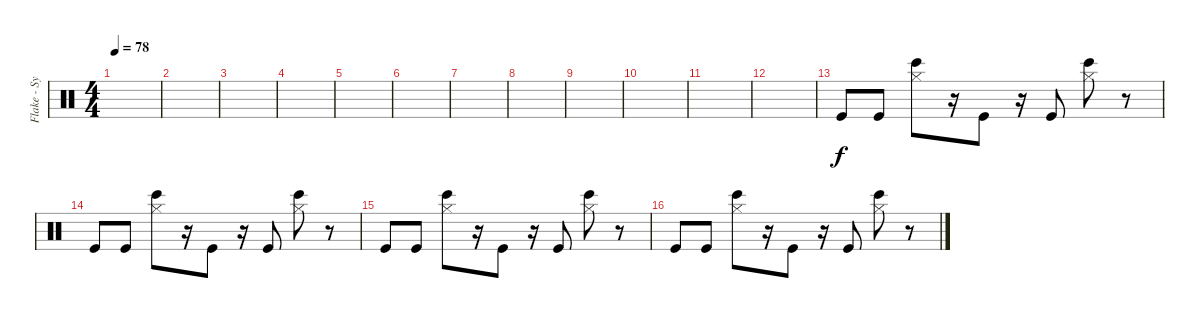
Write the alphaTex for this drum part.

\track ("Flake - Synth Drums" "Flake - Sy") {instrument percussion}
\staff {score}
\articulation defaults
\ts (4 4)
\tempo 78
\clef neutral
\ks c
|
|
|
|
|
|
|
|
|
|
|
|
"Kick (hit)".8 "Kick (hit)".8 ("Bongo High (hit)" "Hi-Hat (closed)").8 r.16 "Kick (hit)".8 r.16 "Kick (hit)".8 ("Bongo High (hit)" "Hi-Hat (closed)").8 r.8 |
"Kick (hit)".8 "Kick (hit)".8 ("Bongo High (hit)" "Hi-Hat (closed)").8 r.16 "Kick (hit)".8 r.16 "Kick (hit)".8 ("Bongo High (hit)" "Hi-Hat (closed)").8 r.8 |
"Kick (hit)".8 "Kick (hit)".8 ("Bongo High (hit)" "Hi-Hat (closed)").8 r.16 "Kick (hit)".8 r.16 "Kick (hit)".8 ("Bongo High (hit)" "Hi-Hat (closed)").8 r.8 |
"Kick (hit)".8 "Kick (hit)".8 ("Bongo High (hit)" "Hi-Hat (closed)").8 r.16 "Kick (hit)".8 r.16 "Kick (hit)".8 ("Bongo High (hit)" "Hi-Hat (closed)").8 r.8
